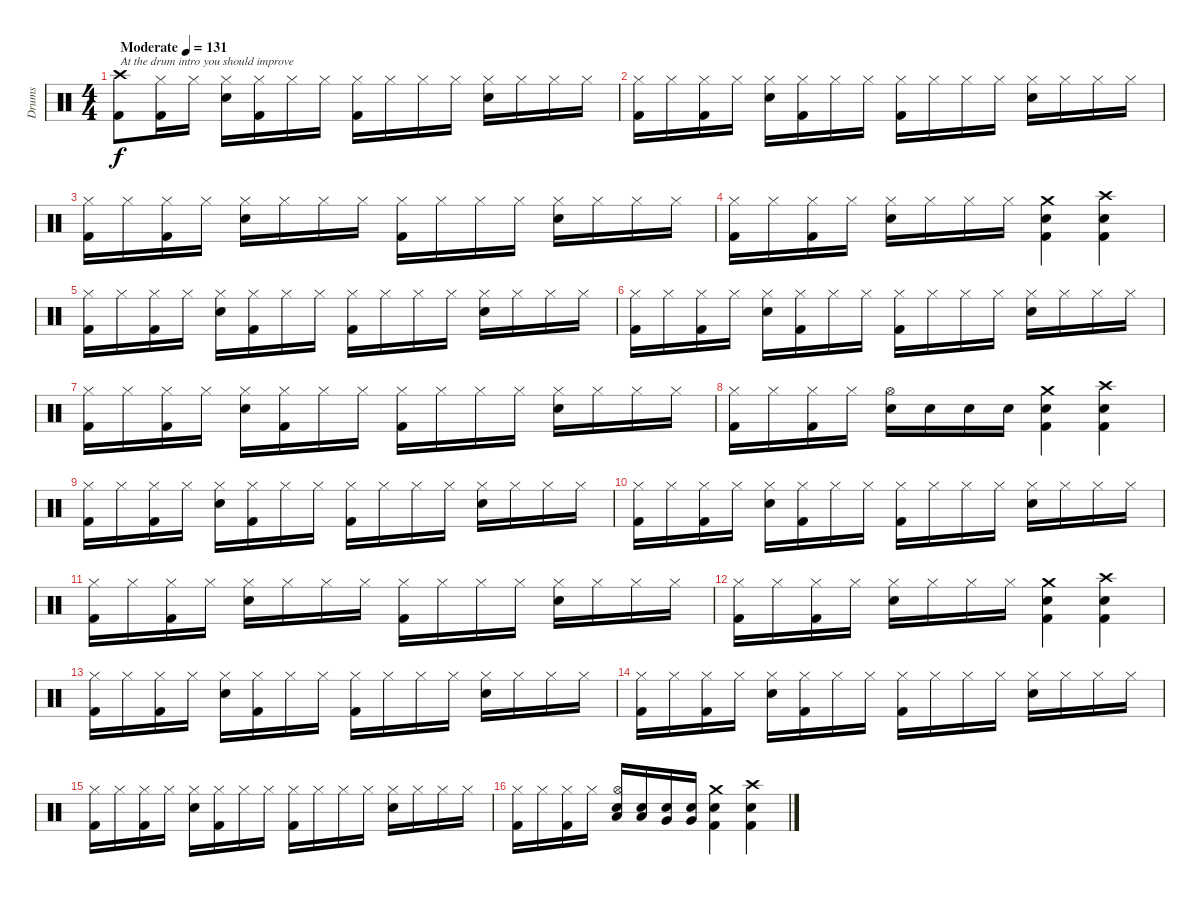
\track ("Drums" "Drums") {instrument percussion}
\staff {score}
\articulation defaults
\ts (4 4)
\tempo (131 "Moderate")
\clef neutral
\ks c
("Crash high (hit)" "Kick (hit) 2").8{txt "At the drum intro you should improve" dy f} ("Hi-Hat (closed)" "Kick (hit) 2").16 "Hi-Hat (closed)".16 ("Hi-Hat (closed)" "Snare (hit) 2").16 ("Hi-Hat (closed)" "Kick (hit) 2").16 "Hi-Hat (closed)".16 "Hi-Hat (closed)".16 ("Hi-Hat (closed)" "Kick (hit) 2").16 "Hi-Hat (closed)".16 "Hi-Hat (closed)".16 "Hi-Hat (closed)".16 ("Hi-Hat (closed)" "Snare (hit) 2").16 "Hi-Hat (closed)".16 "Hi-Hat (closed)".16 "Hi-Hat (closed)".16 |
("Hi-Hat (closed)" "Kick (hit) 2").16 "Hi-Hat (closed)".16 ("Hi-Hat (closed)" "Kick (hit) 2").16 "Hi-Hat (closed)".16 ("Hi-Hat (closed)" "Snare (hit) 2").16 ("Hi-Hat (closed)" "Kick (hit) 2").16 "Hi-Hat (closed)".16 "Hi-Hat (closed)".16 ("Hi-Hat (closed)" "Kick (hit) 2").16 "Hi-Hat (closed)".16 "Hi-Hat (closed)".16 "Hi-Hat (closed)".16 ("Hi-Hat (closed)" "Snare (hit) 2").16 "Hi-Hat (closed)".16 "Hi-Hat (closed)".16 "Hi-Hat (closed)".16 |
("Hi-Hat (closed)" "Kick (hit) 2").16 "Hi-Hat (closed)".16 ("Hi-Hat (closed)" "Kick (hit) 2").16 "Hi-Hat (closed)".16 ("Hi-Hat (closed)" "Snare (hit) 2").16 "Hi-Hat (closed)".16 "Hi-Hat (closed)".16 "Hi-Hat (closed)".16 ("Hi-Hat (closed)" "Kick (hit) 2").16 "Hi-Hat (closed)".16 "Hi-Hat (closed)".16 "Hi-Hat (closed)".16 ("Hi-Hat (closed)" "Snare (hit) 2").16 "Hi-Hat (closed)".16 "Hi-Hat (closed)".16 "Hi-Hat (closed)".16 |
("Hi-Hat (closed)" "Kick (hit) 2").16 "Hi-Hat (closed)".16 ("Hi-Hat (closed)" "Kick (hit) 2").16 "Hi-Hat (closed)".16 ("Hi-Hat (closed)" "Snare (hit) 2").16 "Hi-Hat (closed)".16 "Hi-Hat (closed)".16 "Hi-Hat (closed)".16 ("Crash medium (hit)" "Snare (hit) 2" "Kick (hit) 2").4 ("Crash high (hit)" "Snare (hit) 2" "Kick (hit) 2").4 |
("Hi-Hat (closed)" "Kick (hit) 2").16 "Hi-Hat (closed)".16 ("Hi-Hat (closed)" "Kick (hit) 2").16 "Hi-Hat (closed)".16 ("Hi-Hat (closed)" "Snare (hit) 2").16 ("Hi-Hat (closed)" "Kick (hit) 2").16 "Hi-Hat (closed)".16 "Hi-Hat (closed)".16 ("Hi-Hat (closed)" "Kick (hit) 2").16 "Hi-Hat (closed)".16 "Hi-Hat (closed)".16 "Hi-Hat (closed)".16 ("Hi-Hat (closed)" "Snare (hit) 2").16 "Hi-Hat (closed)".16 "Hi-Hat (closed)".16 "Hi-Hat (closed)".16 |
("Hi-Hat (closed)" "Kick (hit) 2").16 "Hi-Hat (closed)".16 ("Hi-Hat (closed)" "Kick (hit) 2").16 "Hi-Hat (closed)".16 ("Hi-Hat (closed)" "Snare (hit) 2").16 ("Hi-Hat (closed)" "Kick (hit) 2").16 "Hi-Hat (closed)".16 "Hi-Hat (closed)".16 ("Hi-Hat (closed)" "Kick (hit) 2").16 "Hi-Hat (closed)".16 "Hi-Hat (closed)".16 "Hi-Hat (closed)".16 ("Hi-Hat (closed)" "Snare (hit) 2").16 "Hi-Hat (closed)".16 "Hi-Hat (closed)".16 "Hi-Hat (closed)".16 |
("Hi-Hat (closed)" "Kick (hit) 2").16 "Hi-Hat (closed)".16 ("Hi-Hat (closed)" "Kick (hit) 2").16 "Hi-Hat (closed)".16 ("Hi-Hat (closed)" "Snare (hit) 2").16 ("Hi-Hat (closed)" "Kick (hit) 2").16 "Hi-Hat (closed)".16 "Hi-Hat (closed)".16 ("Hi-Hat (closed)" "Kick (hit) 2").16 "Hi-Hat (closed)".16 "Hi-Hat (closed)".16 "Hi-Hat (closed)".16 ("Hi-Hat (closed)" "Snare (hit) 2").16 "Hi-Hat (closed)".16 "Hi-Hat (closed)".16 "Hi-Hat (closed)".16 |
("Hi-Hat (closed)" "Kick (hit) 2").16 "Hi-Hat (closed)".16 ("Hi-Hat (closed)" "Kick (hit) 2").16 "Hi-Hat (closed)".16 ("Hi-Hat (open)" "Snare (hit) 2").16 "Snare (hit) 2".16 "Snare (hit) 2".16 "Snare (hit) 2".16 ("Crash medium (hit)" "Snare (hit) 2" "Kick (hit) 2").4 ("Crash high (hit)" "Snare (hit) 2" "Kick (hit) 2").4 |
("Hi-Hat (closed)" "Kick (hit) 2").16 "Hi-Hat (closed)".16 ("Hi-Hat (closed)" "Kick (hit) 2").16 "Hi-Hat (closed)".16 ("Hi-Hat (closed)" "Snare (hit) 2").16 ("Hi-Hat (closed)" "Kick (hit) 2").16 "Hi-Hat (closed)".16 "Hi-Hat (closed)".16 ("Hi-Hat (closed)" "Kick (hit) 2").16 "Hi-Hat (closed)".16 "Hi-Hat (closed)".16 "Hi-Hat (closed)".16 ("Hi-Hat (closed)" "Snare (hit) 2").16 "Hi-Hat (closed)".16 "Hi-Hat (closed)".16 "Hi-Hat (closed)".16 |
("Hi-Hat (closed)" "Kick (hit) 2").16 "Hi-Hat (closed)".16 ("Hi-Hat (closed)" "Kick (hit) 2").16 "Hi-Hat (closed)".16 ("Hi-Hat (closed)" "Snare (hit) 2").16 ("Hi-Hat (closed)" "Kick (hit) 2").16 "Hi-Hat (closed)".16 "Hi-Hat (closed)".16 ("Hi-Hat (closed)" "Kick (hit) 2").16 "Hi-Hat (closed)".16 "Hi-Hat (closed)".16 "Hi-Hat (closed)".16 ("Hi-Hat (closed)" "Snare (hit) 2").16 "Hi-Hat (closed)".16 "Hi-Hat (closed)".16 "Hi-Hat (closed)".16 |
("Hi-Hat (closed)" "Kick (hit) 2").16 "Hi-Hat (closed)".16 ("Hi-Hat (closed)" "Kick (hit) 2").16 "Hi-Hat (closed)".16 ("Hi-Hat (closed)" "Snare (hit) 2").16 "Hi-Hat (closed)".16 "Hi-Hat (closed)".16 "Hi-Hat (closed)".16 ("Hi-Hat (closed)" "Kick (hit) 2").16 "Hi-Hat (closed)".16 "Hi-Hat (closed)".16 "Hi-Hat (closed)".16 ("Hi-Hat (closed)" "Snare (hit) 2").16 "Hi-Hat (closed)".16 "Hi-Hat (closed)".16 "Hi-Hat (closed)".16 |
("Hi-Hat (closed)" "Kick (hit) 2").16 "Hi-Hat (closed)".16 ("Hi-Hat (closed)" "Kick (hit) 2").16 "Hi-Hat (closed)".16 ("Hi-Hat (closed)" "Snare (hit) 2").16 "Hi-Hat (closed)".16 "Hi-Hat (closed)".16 "Hi-Hat (closed)".16 ("Crash medium (hit)" "Snare (hit) 2" "Kick (hit) 2").4 ("Crash high (hit)" "Snare (hit) 2" "Kick (hit) 2").4 |
("Hi-Hat (closed)" "Kick (hit) 2").16 "Hi-Hat (closed)".16 ("Hi-Hat (closed)" "Kick (hit) 2").16 "Hi-Hat (closed)".16 ("Hi-Hat (closed)" "Snare (hit) 2").16 ("Hi-Hat (closed)" "Kick (hit) 2").16 "Hi-Hat (closed)".16 "Hi-Hat (closed)".16 ("Hi-Hat (closed)" "Kick (hit) 2").16 "Hi-Hat (closed)".16 "Hi-Hat (closed)".16 "Hi-Hat (closed)".16 ("Hi-Hat (closed)" "Snare (hit) 2").16 "Hi-Hat (closed)".16 "Hi-Hat (closed)".16 "Hi-Hat (closed)".16 |
("Hi-Hat (closed)" "Kick (hit) 2").16 "Hi-Hat (closed)".16 ("Hi-Hat (closed)" "Kick (hit) 2").16 "Hi-Hat (closed)".16 ("Hi-Hat (closed)" "Snare (hit) 2").16 ("Hi-Hat (closed)" "Kick (hit) 2").16 "Hi-Hat (closed)".16 "Hi-Hat (closed)".16 ("Hi-Hat (closed)" "Kick (hit) 2").16 "Hi-Hat (closed)".16 "Hi-Hat (closed)".16 "Hi-Hat (closed)".16 ("Hi-Hat (closed)" "Snare (hit) 2").16 "Hi-Hat (closed)".16 "Hi-Hat (closed)".16 "Hi-Hat (closed)".16 |
("Hi-Hat (closed)" "Kick (hit) 2").16 "Hi-Hat (closed)".16 ("Hi-Hat (closed)" "Kick (hit) 2").16 "Hi-Hat (closed)".16 ("Hi-Hat (closed)" "Snare (hit) 2").16 ("Hi-Hat (closed)" "Kick (hit) 2").16 "Hi-Hat (closed)".16 "Hi-Hat (closed)".16 ("Hi-Hat (closed)" "Kick (hit) 2").16 "Hi-Hat (closed)".16 "Hi-Hat (closed)".16 "Hi-Hat (closed)".16 ("Hi-Hat (closed)" "Snare (hit) 2").16 "Hi-Hat (closed)".16 "Hi-Hat (closed)".16 "Hi-Hat (closed)".16 |
("Hi-Hat (closed)" "Kick (hit) 2").16 "Hi-Hat (closed)".16 ("Hi-Hat (closed)" "Kick (hit) 2").16 "Hi-Hat (closed)".16 ("Hi-Hat (open)" "Low Tom (hit)" "Snare (hit) 2").16 ("Low Tom (hit)" "Snare (hit) 2").16 ("Very Low Tom (hit)" "Snare (hit) 2").16 ("Very Low Tom (hit)" "Snare (hit) 2").16 ("Crash medium (hit)" "Snare (hit) 2" "Kick (hit) 2").4 ("Crash high (hit)" "Snare (hit) 2" "Kick (hit) 2").4
